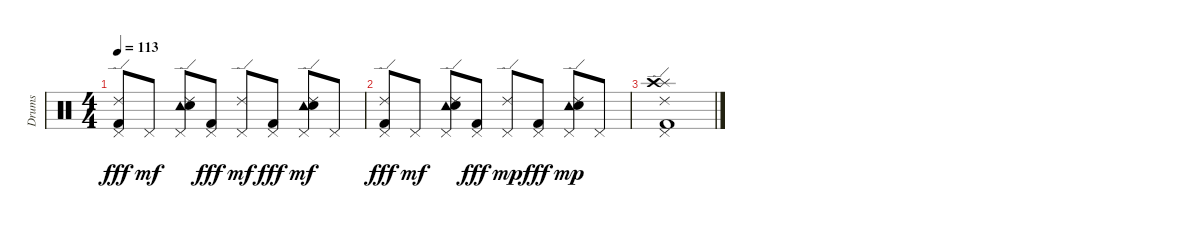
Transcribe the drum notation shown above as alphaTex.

\track ("Drums" "Drums") {instrument percussion}
\staff {score}
\articulation defaults
\ts (4 4)
\tempo 113
\clef neutral
\ks c
("Ride (edge) 2" "Pedal Hi-Hat (hit)" "Kick (hit) 2").8{dy fff} "Pedal Hi-Hat (hit)".8{dy mf} ("Ride (edge) 2" "Tambourine (hit)" "Pedal Hi-Hat (hit)" "Electric Snare (hit)").8 ("Pedal Hi-Hat (hit)" "Kick (hit) 2").8{dy fff} ("Ride (edge) 2" "Pedal Hi-Hat (hit)").8{dy mf} ("Pedal Hi-Hat (hit)" "Kick (hit) 2").8{dy fff} ("Ride (edge) 2" "Tambourine (hit)" "Pedal Hi-Hat (hit)" "Electric Snare (hit)").8{dy mf} "Pedal Hi-Hat (hit)".8 |
("Ride (edge) 2" "Pedal Hi-Hat (hit)" "Kick (hit) 2").8{dy fff} "Pedal Hi-Hat (hit)".8{dy mf} ("Ride (edge) 2" "Tambourine (hit)" "Pedal Hi-Hat (hit)" "Electric Snare (hit)").8 ("Pedal Hi-Hat (hit)" "Kick (hit) 2").8{dy fff} ("Ride (edge) 2" "Pedal Hi-Hat (hit)").8{dy mp} ("Pedal Hi-Hat (hit)" "Kick (hit) 2").8{dy fff} ("Ride (edge) 2" "Tambourine (hit)" "Pedal Hi-Hat (hit)" "Electric Snare (hit)").8{dy mp} "Pedal Hi-Hat (hit)".8 |
("Ride (edge) 2" "Pedal Hi-Hat (hit)" "Kick (hit) 2" "Splash (hit)" "Crash high (hit)").1
